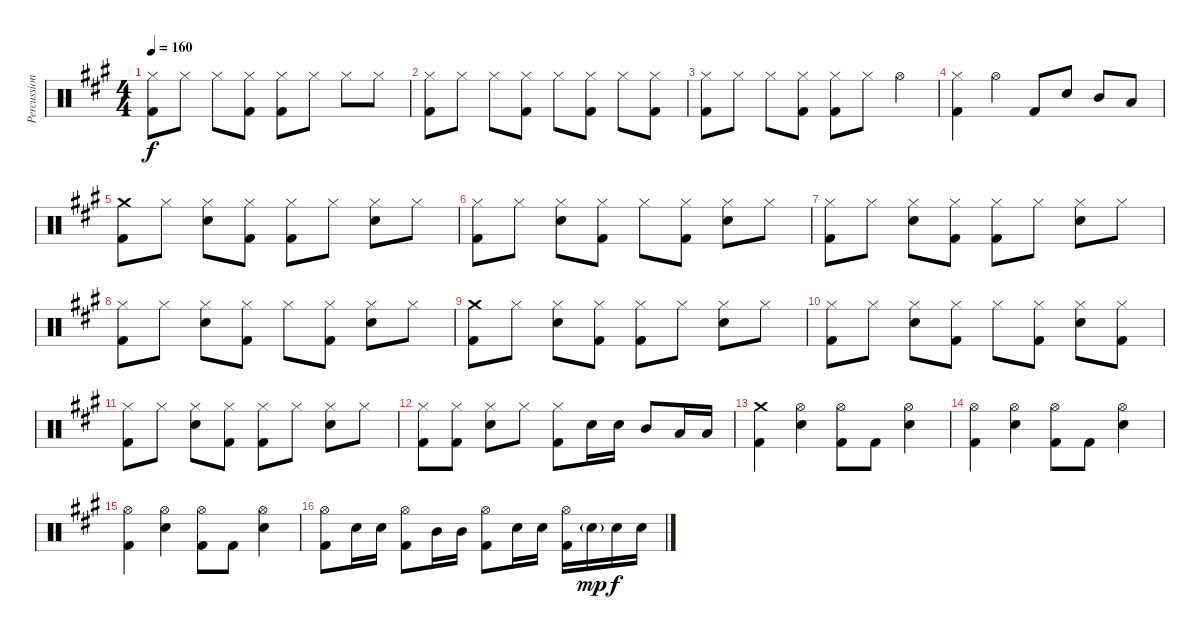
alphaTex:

\track ("Percussion" "Percussion") {instrument percussion}
\staff {score}
\articulation defaults
\ts (4 4)
\tempo 160
\clef neutral
\ks a
("Hi-Hat (closed)" "Kick (hit) 2").8{dy f} "Hi-Hat (closed)".8 "Hi-Hat (closed)".8 ("Hi-Hat (closed)" "Kick (hit) 2").8 ("Hi-Hat (closed)" "Kick (hit) 2").8 "Hi-Hat (closed)".8 "Hi-Hat (closed)".8 "Hi-Hat (closed)".8 |
("Hi-Hat (closed)" "Kick (hit) 2").8 "Hi-Hat (closed)".8 "Hi-Hat (closed)".8 ("Hi-Hat (closed)" "Kick (hit) 2").8 "Hi-Hat (closed)".8 ("Hi-Hat (closed)" "Kick (hit) 2").8 "Hi-Hat (closed)".8 ("Hi-Hat (closed)" "Kick (hit) 2").8 |
("Hi-Hat (closed)" "Kick (hit) 2").8 "Hi-Hat (closed)".8 "Hi-Hat (closed)".8 ("Hi-Hat (closed)" "Kick (hit) 2").8 ("Hi-Hat (closed)" "Kick (hit) 2").8 "Hi-Hat (closed)".8 "Hi-Hat (open)".4 |
("Hi-Hat (closed)" "Kick (hit) 2").4 "Hi-Hat (open)".4 "Kick (hit) 2".8 "Electric Snare (hit)".8 "Mid Tom (hit)".8 "Low Floor Tom (hit)".8 |
("Crash medium (hit)" "Kick (hit) 2").8 "Hi-Hat (closed)".8 ("Hi-Hat (closed)" "Electric Snare (hit)").8 ("Hi-Hat (closed)" "Kick (hit) 2").8 ("Hi-Hat (closed)" "Kick (hit) 2").8 "Hi-Hat (closed)".8 ("Hi-Hat (closed)" "Electric Snare (hit)").8 "Hi-Hat (closed)".8 |
("Hi-Hat (closed)" "Kick (hit) 2").8 "Hi-Hat (closed)".8 ("Hi-Hat (closed)" "Electric Snare (hit)").8 ("Hi-Hat (closed)" "Kick (hit) 2").8 "Hi-Hat (closed)".8 ("Hi-Hat (closed)" "Kick (hit) 2").8 ("Hi-Hat (closed)" "Electric Snare (hit)").8 "Hi-Hat (closed)".8 |
("Hi-Hat (closed)" "Kick (hit) 2").8 "Hi-Hat (closed)".8 ("Hi-Hat (closed)" "Electric Snare (hit)").8 ("Hi-Hat (closed)" "Kick (hit) 2").8 ("Hi-Hat (closed)" "Kick (hit) 2").8 "Hi-Hat (closed)".8 ("Hi-Hat (closed)" "Electric Snare (hit)").8 "Hi-Hat (closed)".8 |
("Hi-Hat (closed)" "Kick (hit) 2").8 "Hi-Hat (closed)".8 ("Hi-Hat (closed)" "Electric Snare (hit)").8 ("Hi-Hat (closed)" "Kick (hit) 2").8 "Hi-Hat (closed)".8 ("Hi-Hat (closed)" "Kick (hit) 2").8 ("Hi-Hat (closed)" "Electric Snare (hit)").8 "Hi-Hat (closed)".8 |
("Crash medium (hit)" "Kick (hit) 2").8 "Hi-Hat (closed)".8 ("Hi-Hat (closed)" "Electric Snare (hit)").8 ("Hi-Hat (closed)" "Kick (hit) 2").8 ("Hi-Hat (closed)" "Kick (hit) 2").8 "Hi-Hat (closed)".8 ("Hi-Hat (closed)" "Electric Snare (hit)").8 "Hi-Hat (closed)".8 |
("Hi-Hat (closed)" "Kick (hit) 2").8 "Hi-Hat (closed)".8 ("Hi-Hat (closed)" "Electric Snare (hit)").8 ("Hi-Hat (closed)" "Kick (hit) 2").8 "Hi-Hat (closed)".8 ("Hi-Hat (closed)" "Kick (hit) 2").8 ("Hi-Hat (closed)" "Electric Snare (hit)").8 ("Hi-Hat (closed)" "Kick (hit) 2").8 |
("Hi-Hat (closed)" "Kick (hit) 2").8 "Hi-Hat (closed)".8 ("Hi-Hat (closed)" "Electric Snare (hit)").8 ("Hi-Hat (closed)" "Kick (hit) 2").8 ("Hi-Hat (closed)" "Kick (hit) 2").8 "Hi-Hat (closed)".8 ("Hi-Hat (closed)" "Electric Snare (hit)").8 "Hi-Hat (closed)".8 |
("Hi-Hat (closed)" "Kick (hit) 2").8 ("Hi-Hat (closed)" "Kick (hit) 2").8 ("Hi-Hat (closed)" "Electric Snare (hit)").8 "Hi-Hat (closed)".8 ("Hi-Hat (closed)" "Kick (hit) 2").8 "Electric Snare (hit)".16 "Electric Snare (hit)".16 "Mid Tom (hit)".8 "Low Floor Tom (hit)".16 "Low Floor Tom (hit)".16 |
("Crash medium (hit)" "Kick (hit) 2").4 ("Hi-Hat (open)" "Electric Snare (hit)").4 ("Hi-Hat (open)" "Kick (hit) 2").8 "Kick (hit) 2".8 ("Hi-Hat (open)" "Electric Snare (hit)").4 |
("Hi-Hat (open)" "Kick (hit) 2").4 ("Hi-Hat (open)" "Electric Snare (hit)").4 ("Hi-Hat (open)" "Kick (hit) 2").8 "Kick (hit) 2".8 ("Hi-Hat (open)" "Electric Snare (hit)").4 |
("Hi-Hat (open)" "Kick (hit) 2").4 ("Hi-Hat (open)" "Electric Snare (hit)").4 ("Hi-Hat (open)" "Kick (hit) 2").8 "Kick (hit) 2".8 ("Hi-Hat (open)" "Electric Snare (hit)").4 |
("Hi-Hat (open)" "Kick (hit) 2").8 "Electric Snare (hit)".16 "Electric Snare (hit)".16 ("Hi-Hat (open)" "Kick (hit) 2").8 "Mid Tom (hit)".16 "Mid Tom (hit)".16 ("Hi-Hat (open)" "Kick (hit) 2").8 "Electric Snare (hit)".16 "Electric Snare (hit)".16 ("Hi-Hat (open)" "Kick (hit) 2").16 "Electric Snare (hit)"{g}.16{dy mp} "Electric Snare (hit)".16{dy f} "Electric Snare (hit)".16
